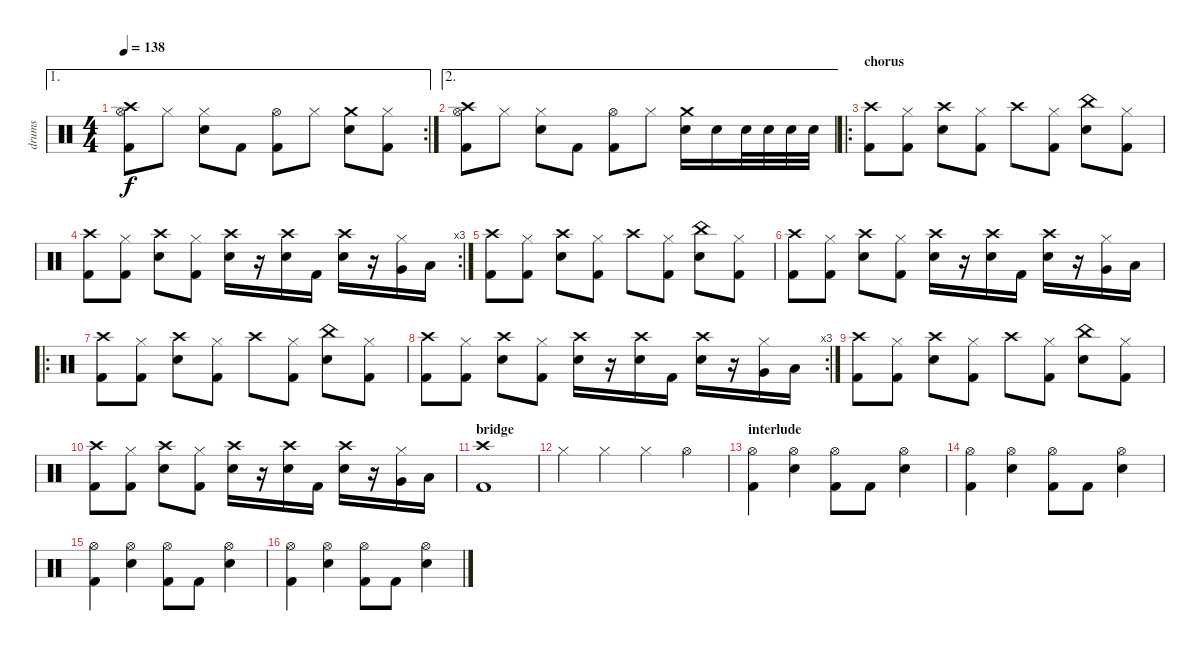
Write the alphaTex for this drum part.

\track ("drums" "drums") {instrument percussion}
\staff {score}
\articulation defaults
\ae 1
\rc 2
\ts (4 4)
\tempo 138
\clef neutral
\ks c
("Crash high (hit)" "Hi-Hat (open)" "Kick (hit) 2").8{dy f} "Hi-Hat (closed)".8 ("Hi-Hat (closed)" "Electric Snare (hit)").8 "Kick (hit) 2".8 ("Hi-Hat (open)" "Kick (hit) 2").8 "Hi-Hat (closed)".8 ("Crash medium (hit)" "Electric Snare (hit)").8 ("Hi-Hat (closed)" "Kick (hit) 2").8 |
\ae 2
("Crash high (hit)" "Hi-Hat (open)" "Kick (hit) 2").8 "Hi-Hat (closed)".8 ("Hi-Hat (closed)" "Electric Snare (hit)").8 "Kick (hit) 2".8 ("Hi-Hat (open)" "Kick (hit) 2").8 "Hi-Hat (closed)".8 ("Crash medium (hit)" "Electric Snare (hit)").16 "Electric Snare (hit)".16 "Electric Snare (hit)".32 "Electric Snare (hit)".32 "Electric Snare (hit)".32 "Electric Snare (hit)".32 |
\ro
\section ("" "chorus")
("Crash high (hit)" "Kick (hit) 2").8 ("Hi-Hat (closed)" "Kick (hit) 2").8 ("Crash high (hit)" "Electric Snare (hit)").8 ("Hi-Hat (closed)" "Kick (hit) 2").8 "Crash high (hit)".8 ("Hi-Hat (closed)" "Kick (hit) 2").8 ("China (hit)" "Electric Snare (hit)").8 ("Hi-Hat (closed)" "Kick (hit) 2").8 |
\rc 3
("Crash high (hit)" "Kick (hit) 2").8 ("Hi-Hat (closed)" "Kick (hit) 2").8 ("Crash high (hit)" "Electric Snare (hit)").8 ("Hi-Hat (closed)" "Kick (hit) 2").8 ("Crash high (hit)" "Electric Snare (hit)").16 r.16 ("Crash high (hit)" "Electric Snare (hit)").16 "Kick (hit) 2".16 ("Crash high (hit)" "Electric Snare (hit)").16 r.16 ("Hi-Hat (closed)" "Very Low Tom (hit)").16 "Low Floor Tom (hit)".16 |
("Crash high (hit)" "Kick (hit) 2").8 ("Hi-Hat (closed)" "Kick (hit) 2").8 ("Crash high (hit)" "Electric Snare (hit)").8 ("Hi-Hat (closed)" "Kick (hit) 2").8 "Crash high (hit)".8 ("Hi-Hat (closed)" "Kick (hit) 2").8 ("China (hit)" "Electric Snare (hit)").8 ("Hi-Hat (closed)" "Kick (hit) 2").8 |
("Crash high (hit)" "Kick (hit) 2").8 ("Hi-Hat (closed)" "Kick (hit) 2").8 ("Crash high (hit)" "Electric Snare (hit)").8 ("Hi-Hat (closed)" "Kick (hit) 2").8 ("Crash high (hit)" "Electric Snare (hit)").16 r.16 ("Crash high (hit)" "Electric Snare (hit)").16 "Kick (hit) 2".16 ("Crash high (hit)" "Electric Snare (hit)").16 r.16 ("Hi-Hat (closed)" "Very Low Tom (hit)").16 "Low Floor Tom (hit)".16 |
\ro
("Crash high (hit)" "Kick (hit) 2").8 ("Hi-Hat (closed)" "Kick (hit) 2").8 ("Crash high (hit)" "Electric Snare (hit)").8 ("Hi-Hat (closed)" "Kick (hit) 2").8 "Crash high (hit)".8 ("Hi-Hat (closed)" "Kick (hit) 2").8 ("China (hit)" "Electric Snare (hit)").8 ("Hi-Hat (closed)" "Kick (hit) 2").8 |
\rc 3
("Crash high (hit)" "Kick (hit) 2").8 ("Hi-Hat (closed)" "Kick (hit) 2").8 ("Crash high (hit)" "Electric Snare (hit)").8 ("Hi-Hat (closed)" "Kick (hit) 2").8 ("Crash high (hit)" "Electric Snare (hit)").16 r.16 ("Crash high (hit)" "Electric Snare (hit)").16 "Kick (hit) 2".16 ("Crash high (hit)" "Electric Snare (hit)").16 r.16 ("Hi-Hat (closed)" "Very Low Tom (hit)").16 "Low Floor Tom (hit)".16 |
("Crash high (hit)" "Kick (hit) 2").8 ("Hi-Hat (closed)" "Kick (hit) 2").8 ("Crash high (hit)" "Electric Snare (hit)").8 ("Hi-Hat (closed)" "Kick (hit) 2").8 "Crash high (hit)".8 ("Hi-Hat (closed)" "Kick (hit) 2").8 ("China (hit)" "Electric Snare (hit)").8 ("Hi-Hat (closed)" "Kick (hit) 2").8 |
("Crash high (hit)" "Kick (hit) 2").8 ("Hi-Hat (closed)" "Kick (hit) 2").8 ("Crash high (hit)" "Electric Snare (hit)").8 ("Hi-Hat (closed)" "Kick (hit) 2").8 ("Crash high (hit)" "Electric Snare (hit)").16 r.16 ("Crash high (hit)" "Electric Snare (hit)").16 "Kick (hit) 2".16 ("Crash high (hit)" "Electric Snare (hit)").16 r.16 ("Hi-Hat (closed)" "Very Low Tom (hit)").16 "Low Floor Tom (hit)".16 |
\section ("" "bridge")
("Crash high (hit)" "Kick (hit) 2").1 |
"Hi-Hat (closed)".4 "Hi-Hat (closed)".4 "Hi-Hat (closed)".4 "Hi-Hat (open)".4 |
\section ("" "interlude")
("Hi-Hat (open)" "Kick (hit) 2").4 ("Hi-Hat (open)" "Electric Snare (hit)").4 ("Hi-Hat (open)" "Kick (hit) 2").8 "Kick (hit) 2".8 ("Hi-Hat (open)" "Electric Snare (hit)").4 |
("Hi-Hat (open)" "Kick (hit) 2").4 ("Hi-Hat (open)" "Electric Snare (hit)").4 ("Hi-Hat (open)" "Kick (hit) 2").8 "Kick (hit) 2".8 ("Hi-Hat (open)" "Electric Snare (hit)").4 |
("Hi-Hat (open)" "Kick (hit) 2").4 ("Hi-Hat (open)" "Electric Snare (hit)").4 ("Hi-Hat (open)" "Kick (hit) 2").8 "Kick (hit) 2".8 ("Hi-Hat (open)" "Electric Snare (hit)").4 |
("Hi-Hat (open)" "Kick (hit) 2").4 ("Hi-Hat (open)" "Electric Snare (hit)").4 ("Hi-Hat (open)" "Kick (hit) 2").8 "Kick (hit) 2".8 ("Hi-Hat (open)" "Electric Snare (hit)").4
